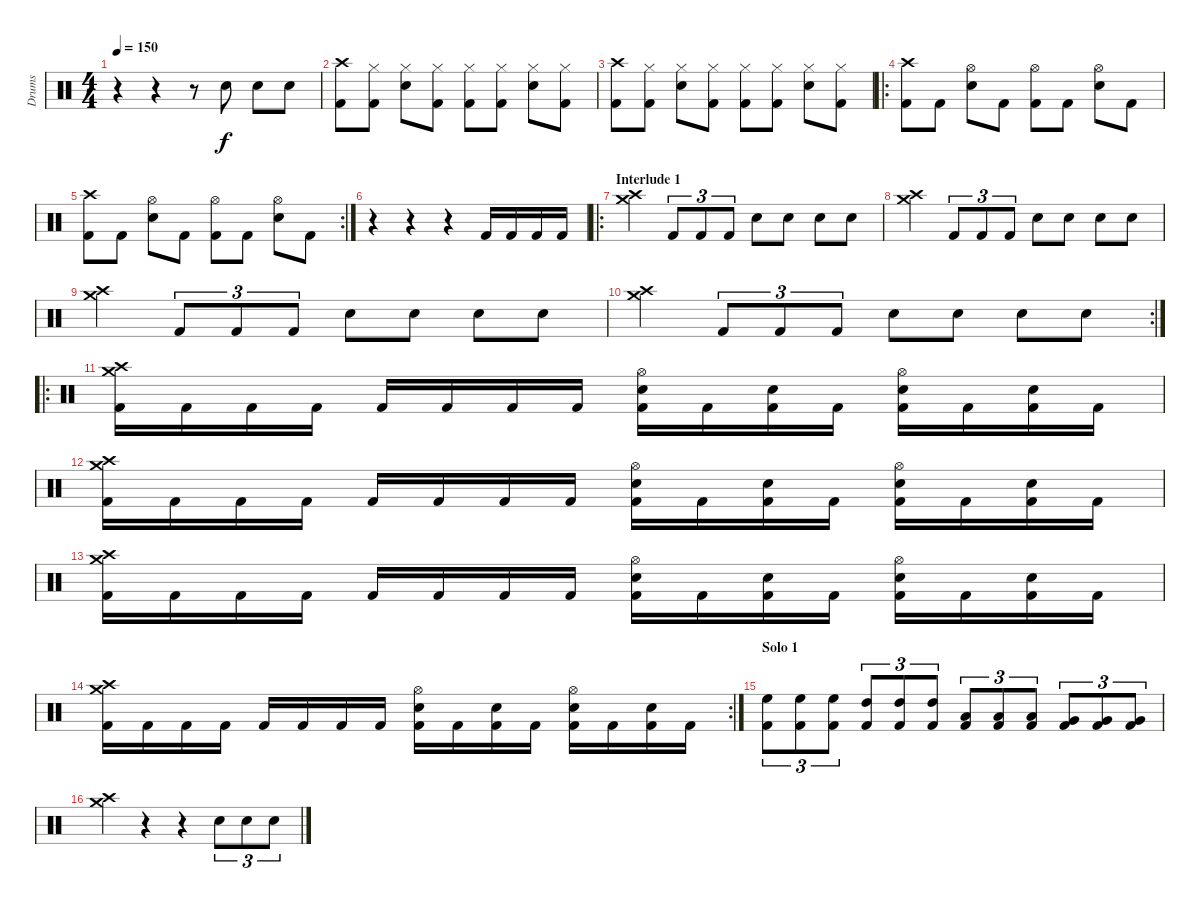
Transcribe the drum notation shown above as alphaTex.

\track ("Drums" "Drums") {instrument percussion}
\staff {score}
\articulation defaults
\ts (4 4)
\tempo 150
\clef neutral
\ks c
r.4{dy f} r.4 r.8 "Snare (hit) 2".8 "Snare (hit) 2".8 "Snare (hit) 2".8 |
("Crash high (hit)" "Kick (hit) 2").8 ("Hi-Hat (closed)" "Kick (hit) 2").8 ("Hi-Hat (closed)" "Snare (hit) 2").8 ("Hi-Hat (closed)" "Kick (hit) 2").8 ("Hi-Hat (closed)" "Kick (hit) 2").8 ("Hi-Hat (closed)" "Kick (hit) 2").8 ("Hi-Hat (closed)" "Snare (hit) 2").8 ("Hi-Hat (closed)" "Kick (hit) 2").8 |
("Crash high (hit)" "Kick (hit) 2").8 ("Hi-Hat (closed)" "Kick (hit) 2").8 ("Hi-Hat (closed)" "Snare (hit) 2").8 ("Hi-Hat (closed)" "Kick (hit) 2").8 ("Hi-Hat (closed)" "Kick (hit) 2").8 ("Hi-Hat (closed)" "Kick (hit) 2").8 ("Hi-Hat (closed)" "Snare (hit) 2").8 ("Hi-Hat (closed)" "Kick (hit) 2").8 |
\ro
("Crash high (hit)" "Kick (hit) 2").8 "Kick (hit) 2".8 ("Hi-Hat (open)" "Snare (hit) 2").8 "Kick (hit) 2".8 ("Hi-Hat (open)" "Kick (hit) 2").8 "Kick (hit) 2".8 ("Hi-Hat (open)" "Snare (hit) 2").8 "Kick (hit) 2".8 |
\rc 2
("Crash high (hit)" "Kick (hit) 2").8 "Kick (hit) 2".8 ("Hi-Hat (open)" "Snare (hit) 2").8 "Kick (hit) 2".8 ("Hi-Hat (open)" "Kick (hit) 2").8 "Kick (hit) 2".8 ("Hi-Hat (open)" "Snare (hit) 2").8 "Kick (hit) 2".8 |
r.4 r.4 r.4 "Kick (hit) 2".16 "Kick (hit) 2".16 "Kick (hit) 2".16 "Kick (hit) 2".16 |
\ro
\section ("" "Interlude 1")
("Crash high (hit)" "Crash medium (hit)").4 "Kick (hit) 2".8{tu (3 2)} "Kick (hit) 2".8{tu (3 2)} "Kick (hit) 2".8{tu (3 2)} "Snare (hit) 2".8 "Snare (hit) 2".8 "Snare (hit) 2".8 "Snare (hit) 2".8 |
("Crash high (hit)" "Crash medium (hit)").4 "Kick (hit) 2".8{tu (3 2)} "Kick (hit) 2".8{tu (3 2)} "Kick (hit) 2".8{tu (3 2)} "Snare (hit) 2".8 "Snare (hit) 2".8 "Snare (hit) 2".8 "Snare (hit) 2".8 |
("Crash high (hit)" "Crash medium (hit)").4 "Kick (hit) 2".8{tu (3 2)} "Kick (hit) 2".8{tu (3 2)} "Kick (hit) 2".8{tu (3 2)} "Snare (hit) 2".8 "Snare (hit) 2".8 "Snare (hit) 2".8 "Snare (hit) 2".8 |
\rc 2
("Crash high (hit)" "Crash medium (hit)").4 "Kick (hit) 2".8{tu (3 2)} "Kick (hit) 2".8{tu (3 2)} "Kick (hit) 2".8{tu (3 2)} "Snare (hit) 2".8 "Snare (hit) 2".8 "Snare (hit) 2".8 "Snare (hit) 2".8 |
\ro
("Crash high (hit)" "Crash medium (hit)" "Kick (hit) 2").16 "Kick (hit) 2".16 "Kick (hit) 2".16 "Kick (hit) 2".16 "Kick (hit) 2".16 "Kick (hit) 2".16 "Kick (hit) 2".16 "Kick (hit) 2".16 ("Hi-Hat (open)" "Snare (hit) 2" "Kick (hit) 2").16 "Kick (hit) 2".16 ("Snare (hit) 2" "Kick (hit) 2").16 "Kick (hit) 2".16 ("Hi-Hat (open)" "Snare (hit) 2" "Kick (hit) 2").16 "Kick (hit) 2".16 ("Snare (hit) 2" "Kick (hit) 2").16 "Kick (hit) 2".16 |
("Crash high (hit)" "Crash medium (hit)" "Kick (hit) 2").16 "Kick (hit) 2".16 "Kick (hit) 2".16 "Kick (hit) 2".16 "Kick (hit) 2".16 "Kick (hit) 2".16 "Kick (hit) 2".16 "Kick (hit) 2".16 ("Hi-Hat (open)" "Snare (hit) 2" "Kick (hit) 2").16 "Kick (hit) 2".16 ("Snare (hit) 2" "Kick (hit) 2").16 "Kick (hit) 2".16 ("Hi-Hat (open)" "Snare (hit) 2" "Kick (hit) 2").16 "Kick (hit) 2".16 ("Snare (hit) 2" "Kick (hit) 2").16 "Kick (hit) 2".16 |
("Crash high (hit)" "Crash medium (hit)" "Kick (hit) 2").16 "Kick (hit) 2".16 "Kick (hit) 2".16 "Kick (hit) 2".16 "Kick (hit) 2".16 "Kick (hit) 2".16 "Kick (hit) 2".16 "Kick (hit) 2".16 ("Hi-Hat (open)" "Snare (hit) 2" "Kick (hit) 2").16 "Kick (hit) 2".16 ("Snare (hit) 2" "Kick (hit) 2").16 "Kick (hit) 2".16 ("Hi-Hat (open)" "Snare (hit) 2" "Kick (hit) 2").16 "Kick (hit) 2".16 ("Snare (hit) 2" "Kick (hit) 2").16 "Kick (hit) 2".16 |
\rc 2
("Crash high (hit)" "Crash medium (hit)" "Kick (hit) 2").16 "Kick (hit) 2".16 "Kick (hit) 2".16 "Kick (hit) 2".16 "Kick (hit) 2".16 "Kick (hit) 2".16 "Kick (hit) 2".16 "Kick (hit) 2".16 ("Hi-Hat (open)" "Snare (hit) 2" "Kick (hit) 2").16 "Kick (hit) 2".16 ("Snare (hit) 2" "Kick (hit) 2").16 "Kick (hit) 2".16 ("Hi-Hat (open)" "Snare (hit) 2" "Kick (hit) 2").16 "Kick (hit) 2".16 ("Snare (hit) 2" "Kick (hit) 2").16 "Kick (hit) 2".16 |
\section ("" "Solo 1")
("High Floor Tom (hit)" "Kick (hit) 2").8{tu (3 2)} ("High Floor Tom (hit)" "Kick (hit) 2").8{tu (3 2)} ("High Floor Tom (hit)" "Kick (hit) 2").8{tu (3 2)} ("High Tom (hit)" "Kick (hit) 2").8{tu (3 2)} ("High Tom (hit)" "Kick (hit) 2").8{tu (3 2)} ("High Tom (hit)" "Kick (hit) 2").8{tu (3 2)} ("Low Tom (hit)" "Kick (hit) 2").8{tu (3 2)} ("Low Tom (hit)" "Kick (hit) 2").8{tu (3 2)} ("Low Tom (hit)" "Kick (hit) 2").8{tu (3 2)} ("Very Low Tom (hit)" "Kick (hit) 2").8{tu (3 2)} ("Very Low Tom (hit)" "Kick (hit) 2").8{tu (3 2)} ("Very Low Tom (hit)" "Kick (hit) 2").8{tu (3 2)} |
("Crash high (hit)" "Crash medium (hit)").4 r.4 r.4 "Snare (hit) 2".8{tu (3 2)} "Snare (hit) 2".8{tu (3 2)} "Snare (hit) 2".8{tu (3 2)}
